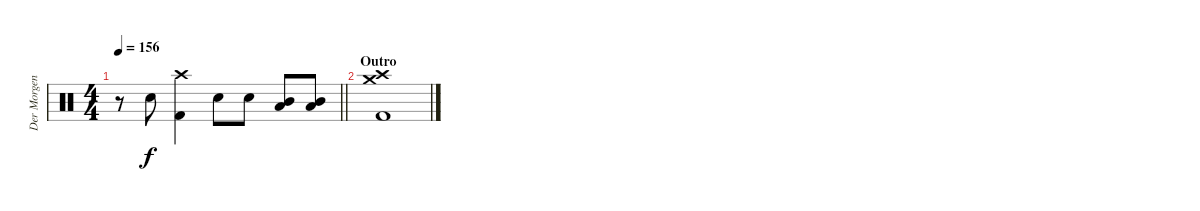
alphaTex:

\track ("Der Morgenstern" "Der Morgen") {instrument percussion}
\staff {score}
\articulation defaults
\ts (4 4)
\tempo 156
\clef neutral
\barLineRight lightlight
\ks c
r.8{dy f} "Electric Snare (hit)".8 ("Crash high (hit)" "Kick (hit) 2").4 "Electric Snare (hit)".8 "Electric Snare (hit)".8 ("Mid Tom (hit)" "Low Tom (hit)").8 ("Mid Tom (hit)" "Low Tom (hit)").8 |
\section ("" "Outro")
("Crash high (hit)" "Crash medium (hit)" "Kick (hit) 2").1
